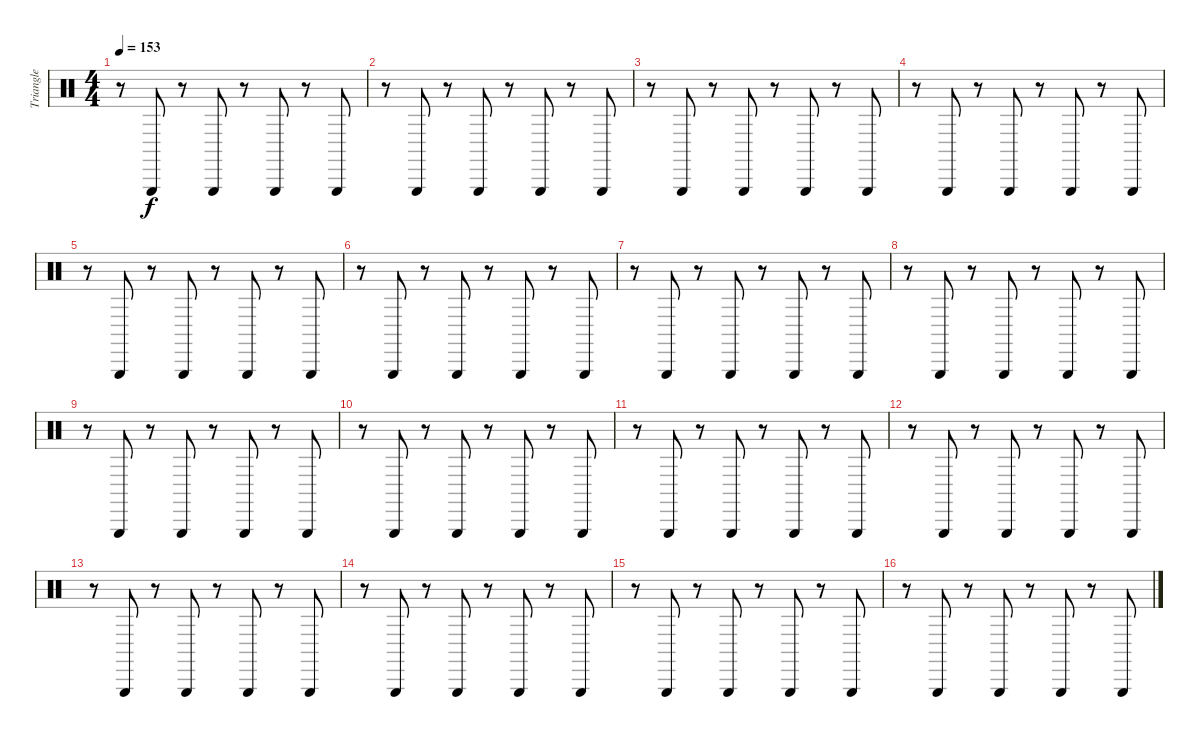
\track ("Triangle" "Triangle") {instrument percussion}
\staff {score}
\articulation defaults
\ts (4 4)
\tempo 153
\clef neutral
\ks c
r.8{dy f} "Triangle (hit)".8 r.8 "Triangle (hit)".8 r.8 "Triangle (hit)".8 r.8 "Triangle (hit)".8 |
r.8 "Triangle (hit)".8 r.8 "Triangle (hit)".8 r.8 "Triangle (hit)".8 r.8 "Triangle (hit)".8 |
r.8 "Triangle (hit)".8 r.8 "Triangle (hit)".8 r.8 "Triangle (hit)".8 r.8 "Triangle (hit)".8 |
r.8 "Triangle (hit)".8 r.8 "Triangle (hit)".8 r.8 "Triangle (hit)".8 r.8 "Triangle (hit)".8 |
r.8 "Triangle (hit)".8 r.8 "Triangle (hit)".8 r.8 "Triangle (hit)".8 r.8 "Triangle (hit)".8 |
r.8 "Triangle (hit)".8 r.8 "Triangle (hit)".8 r.8 "Triangle (hit)".8 r.8 "Triangle (hit)".8 |
r.8 "Triangle (hit)".8 r.8 "Triangle (hit)".8 r.8 "Triangle (hit)".8 r.8 "Triangle (hit)".8 |
r.8 "Triangle (hit)".8 r.8 "Triangle (hit)".8 r.8 "Triangle (hit)".8 r.8 "Triangle (hit)".8 |
r.8 "Triangle (hit)".8 r.8 "Triangle (hit)".8 r.8 "Triangle (hit)".8 r.8 "Triangle (hit)".8 |
r.8 "Triangle (hit)".8 r.8 "Triangle (hit)".8 r.8 "Triangle (hit)".8 r.8 "Triangle (hit)".8 |
r.8 "Triangle (hit)".8 r.8 "Triangle (hit)".8 r.8 "Triangle (hit)".8 r.8 "Triangle (hit)".8 |
r.8 "Triangle (hit)".8 r.8 "Triangle (hit)".8 r.8 "Triangle (hit)".8 r.8 "Triangle (hit)".8 |
r.8 "Triangle (hit)".8 r.8 "Triangle (hit)".8 r.8 "Triangle (hit)".8 r.8 "Triangle (hit)".8 |
r.8 "Triangle (hit)".8 r.8 "Triangle (hit)".8 r.8 "Triangle (hit)".8 r.8 "Triangle (hit)".8 |
r.8 "Triangle (hit)".8 r.8 "Triangle (hit)".8 r.8 "Triangle (hit)".8 r.8 "Triangle (hit)".8 |
r.8 "Triangle (hit)".8 r.8 "Triangle (hit)".8 r.8 "Triangle (hit)".8 r.8 "Triangle (hit)".8
